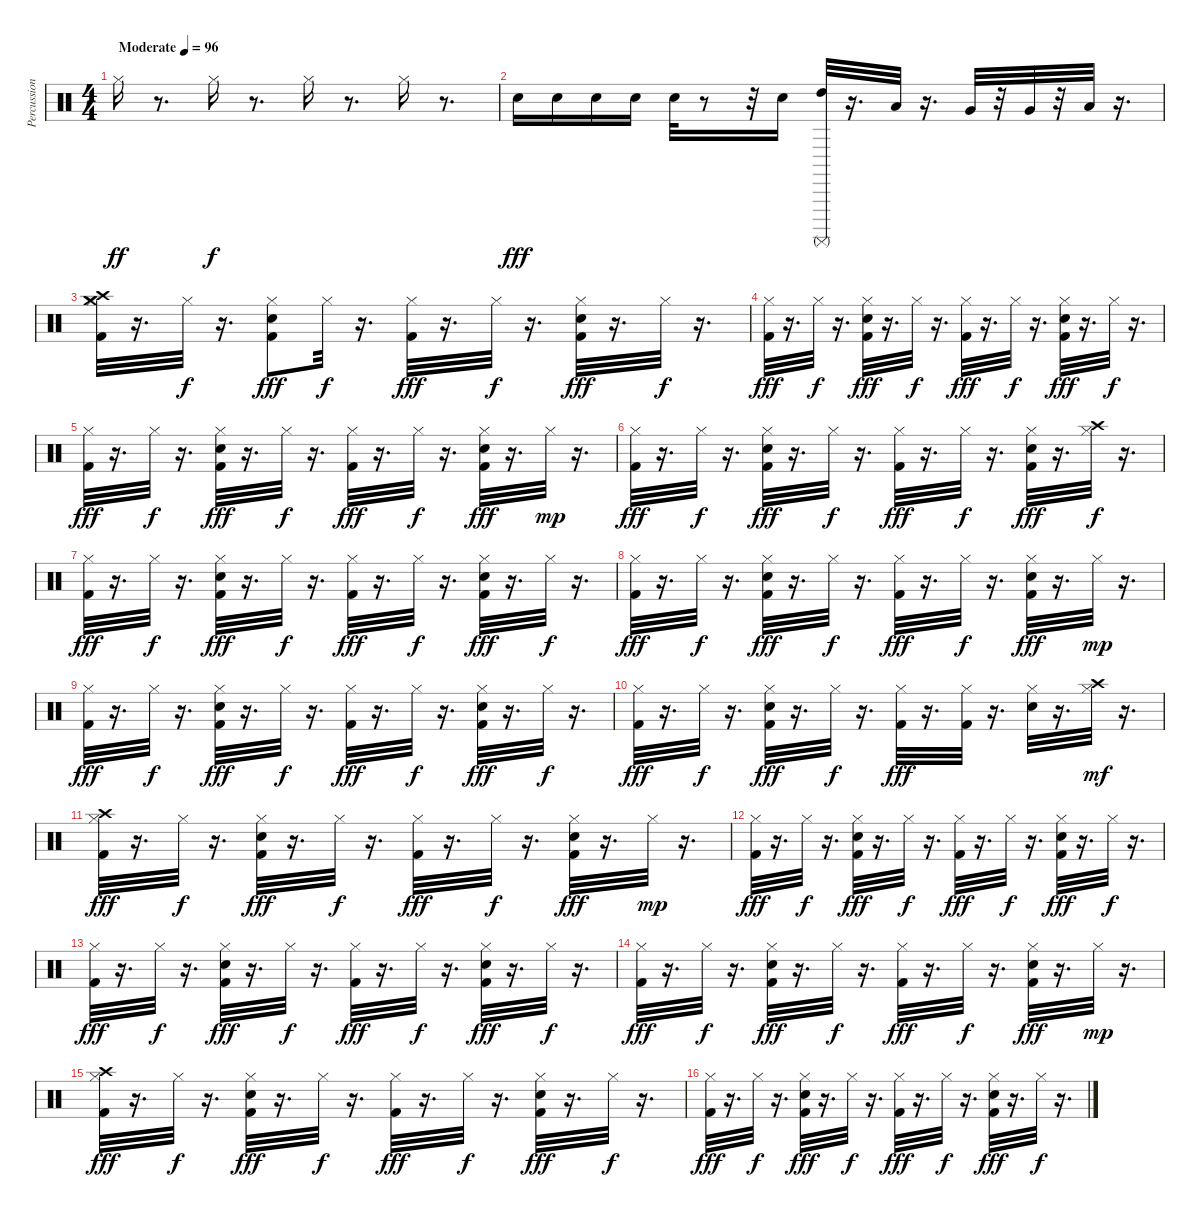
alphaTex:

\track ("Percussion" "Percussion") {instrument percussion}
\staff {score}
\articulation defaults
\ts (4 4)
\tempo (96 "Moderate")
\clef neutral
\ks c "Hi-Hat (closed)".16{dy ff}
r.8{d} "Hi-Hat (closed)".16{dy f} r.8{d} "Hi-Hat (closed)".16 r.8{d} "Hi-Hat (closed)".16 r.8{d} |
"Snare (hit) 2".16{dy fff} "Snare (hit) 2".16 "Snare (hit) 2".16 "Snare (hit) 2".16 "Snare (hit) 2".32 r.8 r.32 "Snare (hit) 2".16 ("High Tom (hit)" "Surdo (mute)").32 r.16{d} "Low Tom (hit)".32 r.16{d} "Very Low Tom (hit)".32 r.32 "Very Low Tom (hit)".32 r.32 "Low Tom (hit)".32 r.16{d} |
("Crash high (hit)" "Hi-Hat (closed)" "Kick (hit) 2" "Crash medium (hit)").32 r.16{d} "Hi-Hat (closed)".32{dy f} r.16{d} ("Hi-Hat (closed)" "Snare (hit) 2" "Kick (hit) 2").8{dy fff} "Hi-Hat (closed)".32{dy f} r.16{d} ("Hi-Hat (closed)" "Kick (hit) 2").32{dy fff} r.16{d} "Hi-Hat (closed)".32{dy f} r.16{d} ("Hi-Hat (closed)" "Snare (hit) 2" "Kick (hit) 2").32{dy fff} r.16{d} "Hi-Hat (closed)".32{dy f} r.16{d} |
("Hi-Hat (closed)" "Kick (hit) 2").32{dy fff} r.16{d} "Hi-Hat (closed)".32{dy f} r.16{d} ("Hi-Hat (closed)" "Snare (hit) 2" "Kick (hit) 2").32{dy fff} r.16{d} "Hi-Hat (closed)".32{dy f} r.16{d} ("Hi-Hat (closed)" "Kick (hit) 2").32{dy fff} r.16{d} "Hi-Hat (closed)".32{dy f} r.16{d} ("Hi-Hat (closed)" "Snare (hit) 2" "Kick (hit) 2").32{dy fff} r.16{d} "Hi-Hat (closed)".32{dy f} r.16{d} |
("Hi-Hat (closed)" "Kick (hit) 2").32{dy fff} r.16{d} "Hi-Hat (closed)".32{dy f} r.16{d} ("Hi-Hat (closed)" "Snare (hit) 2" "Kick (hit) 2").32{dy fff} r.16{d} "Hi-Hat (closed)".32{dy f} r.16{d} ("Hi-Hat (closed)" "Kick (hit) 2").32{dy fff} r.16{d} "Hi-Hat (closed)".32{dy f} r.16{d} ("Hi-Hat (closed)" "Snare (hit) 2" "Kick (hit) 2").32{dy fff} r.16{d} "Hi-Hat (closed)".32{dy mp} r.16{d} |
("Hi-Hat (closed)" "Kick (hit) 2").32{dy fff} r.16{d} "Hi-Hat (closed)".32{dy f} r.16{d} ("Hi-Hat (closed)" "Snare (hit) 2" "Kick (hit) 2").32{dy fff} r.16{d} "Hi-Hat (closed)".32{dy f} r.16{d} ("Hi-Hat (closed)" "Kick (hit) 2").32{dy fff} r.16{d} "Hi-Hat (closed)".32{dy f} r.16{d} ("Hi-Hat (closed)" "Snare (hit) 2" "Kick (hit) 2").32{dy fff} r.16{d} ("Crash high (hit)" "Hi-Hat (closed)").32{dy f} r.16{d} |
("Hi-Hat (closed)" "Kick (hit) 2").32{dy fff} r.16{d} "Hi-Hat (closed)".32{dy f} r.16{d} ("Hi-Hat (closed)" "Snare (hit) 2" "Kick (hit) 2").32{dy fff} r.16{d} "Hi-Hat (closed)".32{dy f} r.16{d} ("Hi-Hat (closed)" "Kick (hit) 2").32{dy fff} r.16{d} "Hi-Hat (closed)".32{dy f} r.16{d} ("Hi-Hat (closed)" "Snare (hit) 2" "Kick (hit) 2").32{dy fff} r.16{d} "Hi-Hat (closed)".32{dy f} r.16{d} |
("Hi-Hat (closed)" "Kick (hit) 2").32{dy fff} r.16{d} "Hi-Hat (closed)".32{dy f} r.16{d} ("Hi-Hat (closed)" "Snare (hit) 2" "Kick (hit) 2").32{dy fff} r.16{d} "Hi-Hat (closed)".32{dy f} r.16{d} ("Hi-Hat (closed)" "Kick (hit) 2").32{dy fff} r.16{d} "Hi-Hat (closed)".32{dy f} r.16{d} ("Hi-Hat (closed)" "Snare (hit) 2" "Kick (hit) 2").32{dy fff} r.16{d} "Hi-Hat (closed)".32{dy mp} r.16{d} |
("Hi-Hat (closed)" "Kick (hit) 2").32{dy fff} r.16{d} "Hi-Hat (closed)".32{dy f} r.16{d} ("Hi-Hat (closed)" "Snare (hit) 2" "Kick (hit) 2").32{dy fff} r.16{d} "Hi-Hat (closed)".32{dy f} r.16{d} ("Hi-Hat (closed)" "Kick (hit) 2").32{dy fff} r.16{d} "Hi-Hat (closed)".32{dy f} r.16{d} ("Hi-Hat (closed)" "Snare (hit) 2" "Kick (hit) 2").32{dy fff} r.16{d} "Hi-Hat (closed)".32{dy f} r.16{d} |
("Hi-Hat (closed)" "Kick (hit) 2").32{dy fff} r.16{d} "Hi-Hat (closed)".32{dy f} r.16{d} ("Hi-Hat (closed)" "Snare (hit) 2" "Kick (hit) 2").32{dy fff} r.16{d} "Hi-Hat (closed)".32{dy f} r.16{d} ("Hi-Hat (closed)" "Kick (hit) 2").32{dy fff} r.16{d} ("Hi-Hat (closed)" "Kick (hit) 2").32 r.16{d} ("Hi-Hat (closed)" "Snare (hit) 2").32 r.16{d} ("Crash high (hit)" "Hi-Hat (closed)").32{dy mf} r.16{d} |
("Crash high (hit)" "Hi-Hat (closed)" "Kick (hit) 2").32{dy fff} r.16{d} "Hi-Hat (closed)".32{dy f} r.16{d} ("Hi-Hat (closed)" "Snare (hit) 2" "Kick (hit) 2").32{dy fff} r.16{d} "Hi-Hat (closed)".32{dy f} r.16{d} ("Hi-Hat (closed)" "Kick (hit) 2").32{dy fff} r.16{d} "Hi-Hat (closed)".32{dy f} r.16{d} ("Hi-Hat (closed)" "Snare (hit) 2" "Kick (hit) 2").32{dy fff} r.16{d} "Hi-Hat (closed)".32{dy mp} r.16{d} |
("Hi-Hat (closed)" "Kick (hit) 2").32{dy fff} r.16{d} "Hi-Hat (closed)".32{dy f} r.16{d} ("Hi-Hat (closed)" "Snare (hit) 2" "Kick (hit) 2").32{dy fff} r.16{d} "Hi-Hat (closed)".32{dy f} r.16{d} ("Hi-Hat (closed)" "Kick (hit) 2").32{dy fff} r.16{d} "Hi-Hat (closed)".32{dy f} r.16{d} ("Hi-Hat (closed)" "Snare (hit) 2" "Kick (hit) 2").32{dy fff} r.16{d} "Hi-Hat (closed)".32{dy f} r.16{d} |
("Hi-Hat (closed)" "Kick (hit) 2").32{dy fff} r.16{d} "Hi-Hat (closed)".32{dy f} r.16{d} ("Hi-Hat (closed)" "Snare (hit) 2" "Kick (hit) 2").32{dy fff} r.16{d} "Hi-Hat (closed)".32{dy f} r.16{d} ("Hi-Hat (closed)" "Kick (hit) 2").32{dy fff} r.16{d} "Hi-Hat (closed)".32{dy f} r.16{d} ("Hi-Hat (closed)" "Snare (hit) 2" "Kick (hit) 2").32{dy fff} r.16{d} "Hi-Hat (closed)".32{dy f} r.16{d} |
("Hi-Hat (closed)" "Kick (hit) 2").32{dy fff} r.16{d} "Hi-Hat (closed)".32{dy f} r.16{d} ("Hi-Hat (closed)" "Snare (hit) 2" "Kick (hit) 2").32{dy fff} r.16{d} "Hi-Hat (closed)".32{dy f} r.16{d} ("Hi-Hat (closed)" "Kick (hit) 2").32{dy fff} r.16{d} "Hi-Hat (closed)".32{dy f} r.16{d} ("Hi-Hat (closed)" "Snare (hit) 2" "Kick (hit) 2").32{dy fff} r.16{d} "Hi-Hat (closed)".32{dy mp} r.16{d} |
("Crash high (hit)" "Hi-Hat (closed)" "Kick (hit) 2").32{dy fff} r.16{d} "Hi-Hat (closed)".32{dy f} r.16{d} ("Hi-Hat (closed)" "Snare (hit) 2" "Kick (hit) 2").32{dy fff} r.16{d} "Hi-Hat (closed)".32{dy f} r.16{d} ("Hi-Hat (closed)" "Kick (hit) 2").32{dy fff} r.16{d} "Hi-Hat (closed)".32{dy f} r.16{d} ("Hi-Hat (closed)" "Snare (hit) 2" "Kick (hit) 2").32{dy fff} r.16{d} "Hi-Hat (closed)".32{dy f} r.16{d} |
("Hi-Hat (closed)" "Kick (hit) 2").32{dy fff} r.16{d} "Hi-Hat (closed)".32{dy f} r.16{d} ("Hi-Hat (closed)" "Snare (hit) 2" "Kick (hit) 2").32{dy fff} r.16{d} "Hi-Hat (closed)".32{dy f} r.16{d} ("Hi-Hat (closed)" "Kick (hit) 2").32{dy fff} r.16{d} "Hi-Hat (closed)".32{dy f} r.16{d} ("Hi-Hat (closed)" "Snare (hit) 2" "Kick (hit) 2").32{dy fff} r.16{d} "Hi-Hat (closed)".32{dy f} r.16{d}
